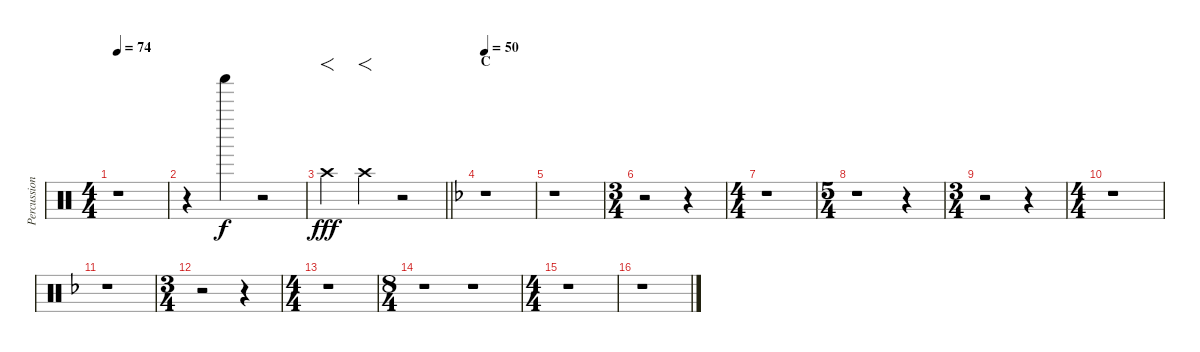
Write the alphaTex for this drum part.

\track ("Percussion" "Percussion") {instrument percussion}
\staff {score}
\articulation defaults
\ts (4 4)
\tempo 74
\clef neutral
\ks c
r.1{dy mp} |
r.4 "Shaker (hit)".4{dy f} r.2 |
\barLineRight lightlight "Crash high (hit)".4{f dy fff} "Crash high (hit)".4{f}
r.2 |
\section ("" "C")
\tempo 50
\ks f
r.1 |
r.1 |
\ts (3 4)
r.2 r.4 |
\ts (4 4)
r.1 |
\ts (5 4)
r.1 r.4 |
\ts (3 4)
r.2 r.4 |
\ts (4 4)
r.1 |
r.1 |
\ts (3 4)
r.2 r.4 |
\ts (4 4)
r.1 |
\ts (8 4)
r.1 r.1 |
\ts (4 4)
r.1 |
r.1
